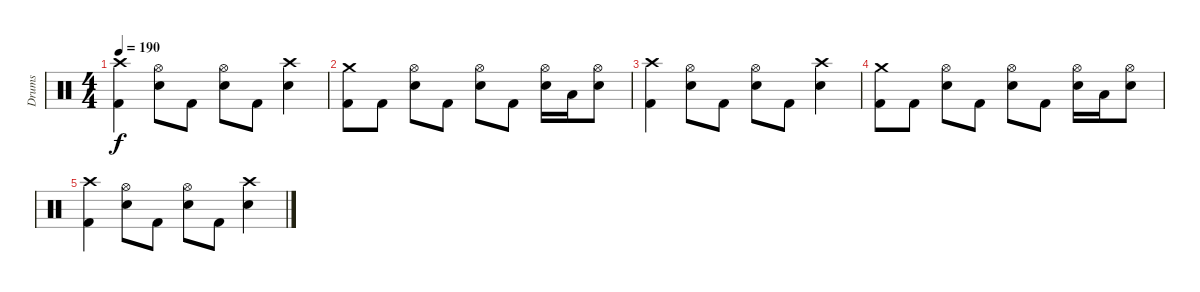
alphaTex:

\track ("Drums" "Drums") {instrument percussion}
\staff {score}
\articulation defaults
\ts (4 4)
\tempo 190
\clef neutral
\ks c
("Crash high (hit)" "Kick (hit) 2").4{dy f} ("Hi-Hat (open)" "Snare (hit) 2").8 "Kick (hit) 2".8 ("Hi-Hat (open)" "Snare (hit) 2").8 "Kick (hit) 2".8 ("Crash high (hit)" "Snare (hit) 2").4 |
("Crash medium (hit)" "Kick (hit) 2").8 "Kick (hit) 2".8 ("Hi-Hat (open)" "Snare (hit) 2").8 "Kick (hit) 2".8 ("Hi-Hat (open)" "Snare (hit) 2").8 "Kick (hit) 2".8 ("Hi-Hat (open)" "Snare (hit) 2").16 "Low Tom (hit)".16 ("Hi-Hat (open)" "Snare (hit) 2").8 |
("Crash high (hit)" "Kick (hit) 2").4 ("Hi-Hat (open)" "Snare (hit) 2").8 "Kick (hit) 2".8 ("Hi-Hat (open)" "Snare (hit) 2").8 "Kick (hit) 2".8 ("Crash high (hit)" "Snare (hit) 2").4 |
("Crash medium (hit)" "Kick (hit) 2").8 "Kick (hit) 2".8 ("Hi-Hat (open)" "Snare (hit) 2").8 "Kick (hit) 2".8 ("Hi-Hat (open)" "Snare (hit) 2").8 "Kick (hit) 2".8 ("Hi-Hat (open)" "Snare (hit) 2").16 "Low Tom (hit)".16 ("Hi-Hat (open)" "Snare (hit) 2").8 |
("Crash high (hit)" "Kick (hit) 2").4 ("Hi-Hat (open)" "Snare (hit) 2").8 "Kick (hit) 2".8 ("Hi-Hat (open)" "Snare (hit) 2").8 "Kick (hit) 2".8 ("Crash high (hit)" "Snare (hit) 2").4
